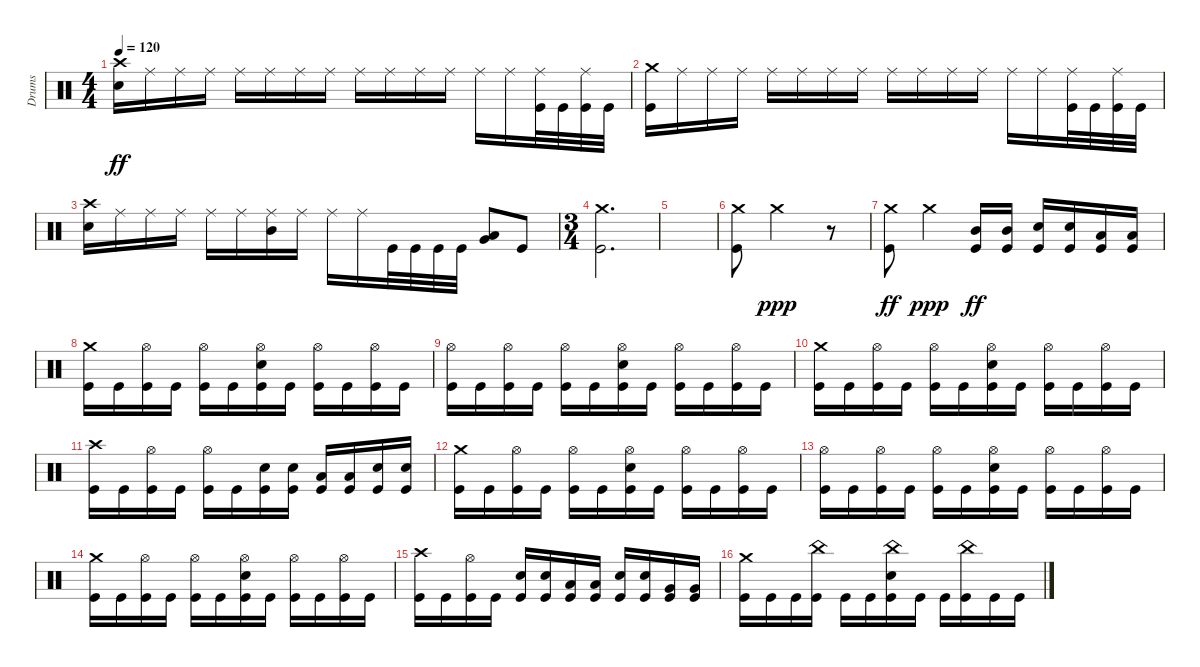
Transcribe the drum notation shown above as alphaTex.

\track ("Drums" "Drums") {instrument percussion}
\staff {score}
\articulation defaults
\ts (4 4)
\tempo 120
\clef neutral
\ks c
("Snare (hit) 2" "Crash high (hit)").16{dy ff} "Ride (middle)".16 "Ride (middle)".16 "Ride (middle)".16 "Ride (middle)".16 "Ride (middle)".16 "Ride (middle)".16 "Ride (middle)".16 "Ride (middle)".16 "Ride (middle)".16 "Ride (middle)".16 "Ride (middle)".16 "Ride (middle)".16 "Ride (middle)".16 ("Kick (hit)" "Ride (middle)").32 "Kick (hit)".32 ("Kick (hit)" "Ride (middle)").32 "Kick (hit)".32 |
("Kick (hit)" "Crash medium (hit)").16 "Ride (middle)".16 "Ride (middle)".16 "Ride (middle)".16 "Ride (middle)".16 "Ride (middle)".16 "Ride (middle)".16 "Ride (middle)".16 "Ride (middle)".16 "Ride (middle)".16 "Ride (middle)".16 "Ride (middle)".16 "Ride (middle)".16 "Ride (middle)".16 ("Kick (hit)" "Ride (middle)").32 "Kick (hit)".32 ("Kick (hit)" "Ride (middle)").32 "Kick (hit)".32 |
("Snare (hit) 2" "Crash high (hit)").16 "Ride (middle)".16 "Ride (middle)".16 "Ride (middle)".16 "Ride (middle)".16 "Ride (middle)".16 ("Ride (middle)" "Mid Tom (hit)").16 "Ride (middle)".16 "Ride (middle)".16 "Ride (middle)".16 "Kick (hit)".32 "Kick (hit)".32 "Kick (hit)".32 "Kick (hit)".32 ("Low Tom (hit)" "Very Low Tom (hit)").8 "Kick (hit)".8 |
\ts (3 4)
("Kick (hit)" "Crash medium (hit)").2{d} |
|
("Kick (hit)" "Crash medium (hit)").8 "Crash medium (hit)".2{dy ppp} r.8 |
("Kick (hit)" "Crash medium (hit)").8{dy ff} "Crash medium (hit)".4{dy ppp} ("Mid Tom (hit)" "Kick (hit)").16{dy ff} ("Mid Tom (hit)" "Kick (hit)").16 ("Snare (hit) 2" "Kick (hit)").16 ("Snare (hit) 2" "Kick (hit)").16 ("Low Tom (hit)" "Kick (hit)").16 ("Low Tom (hit)" "Kick (hit)").16 |
("Kick (hit)" "Crash medium (hit)").16 "Kick (hit)".16 ("Kick (hit)" "Hi-Hat (open)").16 "Kick (hit)".16 ("Kick (hit)" "Hi-Hat (open)").16 "Kick (hit)".16 ("Kick (hit)" "Snare (hit) 2" "Hi-Hat (open)").16 "Kick (hit)".16 ("Kick (hit)" "Hi-Hat (open)").16 "Kick (hit)".16 ("Kick (hit)" "Hi-Hat (open)").16 "Kick (hit)".16 |
("Kick (hit)" "Hi-Hat (open)").16 "Kick (hit)".16 ("Kick (hit)" "Hi-Hat (open)").16 "Kick (hit)".16 ("Kick (hit)" "Hi-Hat (open)").16 "Kick (hit)".16 ("Kick (hit)" "Snare (hit) 2" "Hi-Hat (open)").16 "Kick (hit)".16 ("Kick (hit)" "Hi-Hat (open)").16 "Kick (hit)".16 ("Kick (hit)" "Hi-Hat (open)").16 "Kick (hit)".16 |
("Kick (hit)" "Crash medium (hit)").16 "Kick (hit)".16 ("Kick (hit)" "Hi-Hat (open)").16 "Kick (hit)".16 ("Kick (hit)" "Hi-Hat (open)").16 "Kick (hit)".16 ("Kick (hit)" "Snare (hit) 2" "Hi-Hat (open)").16 "Kick (hit)".16 ("Kick (hit)" "Hi-Hat (open)").16 "Kick (hit)".16 ("Kick (hit)" "Hi-Hat (open)").16 "Kick (hit)".16 |
("Kick (hit)" "Crash high (hit)").16 "Kick (hit)".16 ("Kick (hit)" "Hi-Hat (open)").16 "Kick (hit)".16 ("Kick (hit)" "Hi-Hat (open)").16 "Kick (hit)".16 ("Kick (hit)" "Snare (hit) 2").16 ("Snare (hit) 2" "Kick (hit)").16 ("Low Tom (hit)" "Kick (hit)").16 ("Low Tom (hit)" "Kick (hit)").16 ("Snare (hit) 2" "Kick (hit)").16 ("Snare (hit) 2" "Kick (hit)").16 |
("Kick (hit)" "Crash medium (hit)").16 "Kick (hit)".16 ("Kick (hit)" "Hi-Hat (open)").16 "Kick (hit)".16 ("Kick (hit)" "Hi-Hat (open)").16 "Kick (hit)".16 ("Kick (hit)" "Snare (hit) 2" "Hi-Hat (open)").16 "Kick (hit)".16 ("Kick (hit)" "Hi-Hat (open)").16 "Kick (hit)".16 ("Kick (hit)" "Hi-Hat (open)").16 "Kick (hit)".16 |
("Kick (hit)" "Hi-Hat (open)").16 "Kick (hit)".16 ("Kick (hit)" "Hi-Hat (open)").16 "Kick (hit)".16 ("Kick (hit)" "Hi-Hat (open)").16 "Kick (hit)".16 ("Kick (hit)" "Snare (hit) 2" "Hi-Hat (open)").16 "Kick (hit)".16 ("Kick (hit)" "Hi-Hat (open)").16 "Kick (hit)".16 ("Kick (hit)" "Hi-Hat (open)").16 "Kick (hit)".16 |
("Kick (hit)" "Crash medium (hit)").16 "Kick (hit)".16 ("Kick (hit)" "Hi-Hat (open)").16 "Kick (hit)".16 ("Kick (hit)" "Hi-Hat (open)").16 "Kick (hit)".16 ("Kick (hit)" "Snare (hit) 2" "Hi-Hat (open)").16 "Kick (hit)".16 ("Kick (hit)" "Hi-Hat (open)").16 "Kick (hit)".16 ("Kick (hit)" "Hi-Hat (open)").16 "Kick (hit)".16 |
("Kick (hit)" "Crash high (hit)").16 "Kick (hit)".16 ("Kick (hit)" "Hi-Hat (open)").16 "Kick (hit)".16 ("Kick (hit)" "Snare (hit) 2").16 ("Kick (hit)" "Snare (hit) 2").16 ("Kick (hit)" "Low Tom (hit)").16 ("Kick (hit)" "Low Tom (hit)").16 ("Kick (hit)" "Snare (hit) 2").16 ("Kick (hit)" "Snare (hit) 2").16 ("Kick (hit)" "Very Low Tom (hit)").16 ("Kick (hit)" "Very Low Tom (hit)").16 |
("Kick (hit)" "Crash medium (hit)").16 "Kick (hit)".16 "Kick (hit)".16 ("Kick (hit)" "China (hit)").16 "Kick (hit)".16 "Kick (hit)".16 ("Kick (hit)" "Snare (hit) 2" "China (hit)").16 "Kick (hit)".16 "Kick (hit)".16 ("Kick (hit)" "China (hit)").16 "Kick (hit)".16 "Kick (hit)".16
